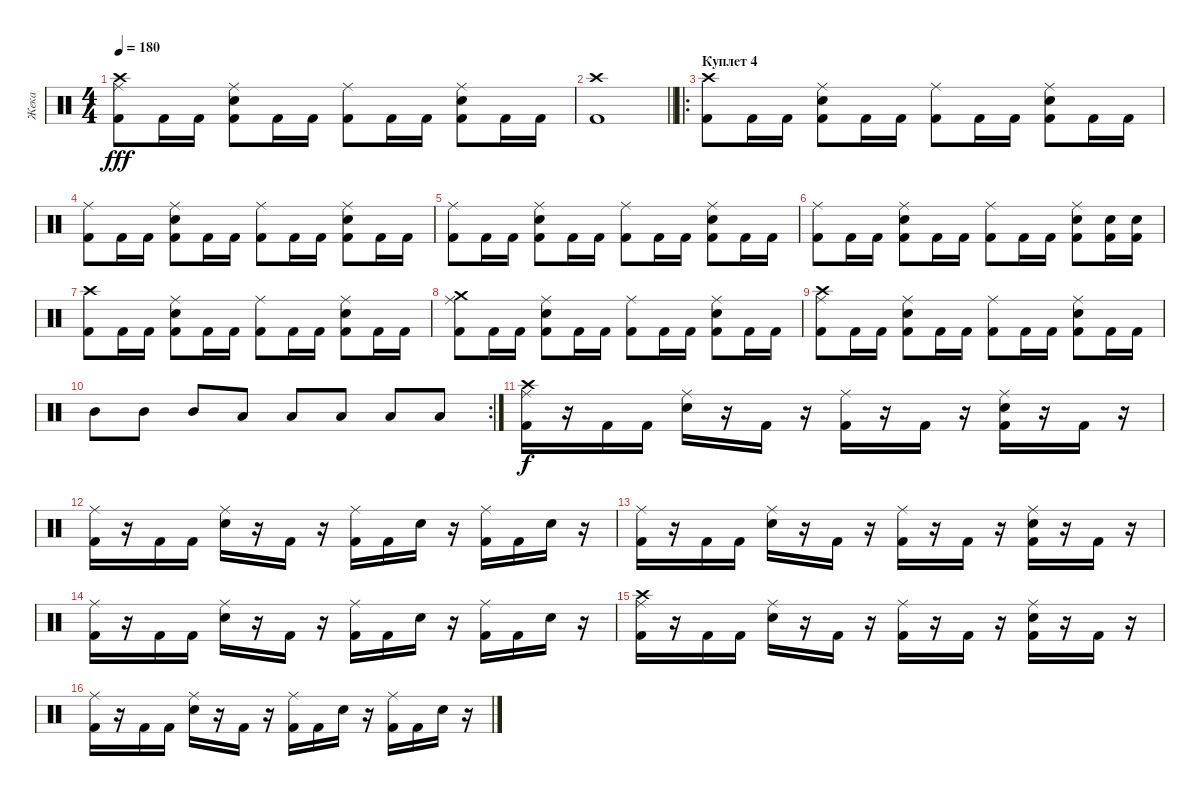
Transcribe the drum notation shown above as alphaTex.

\track ("Жека" "Жека") {instrument percussion}
\staff {score}
\articulation defaults
\ts (4 4)
\tempo 180
\clef neutral
\ks c
("Ride (middle)" "Kick (hit) 2" "Crash high (hit)").8{dy fff} "Kick (hit) 2".16 "Kick (hit) 2".16 ("Ride (middle)" "Kick (hit) 2" "Snare (hit) 2").8 "Kick (hit) 2".16 "Kick (hit) 2".16 ("Ride (middle)" "Kick (hit) 2").8 "Kick (hit) 2".16 "Kick (hit) 2".16 ("Ride (middle)" "Kick (hit) 2" "Snare (hit) 2").8 "Kick (hit) 2".16 "Kick (hit) 2".16 |
\barLineRight lightlight
("Kick (hit) 2" "Crash high (hit)").1 |
\ro
\section ("" "Куплет 4")
("Kick (hit) 2" "Crash high (hit)").8 "Kick (hit) 2".16 "Kick (hit) 2".16 ("Ride (middle)" "Kick (hit) 2" "Snare (hit) 2").8 "Kick (hit) 2".16 "Kick (hit) 2".16 ("Ride (middle)" "Kick (hit) 2").8 "Kick (hit) 2".16 "Kick (hit) 2".16 ("Ride (middle)" "Kick (hit) 2" "Snare (hit) 2").8 "Kick (hit) 2".16 "Kick (hit) 2".16 |
("Ride (middle)" "Kick (hit) 2").8 "Kick (hit) 2".16 "Kick (hit) 2".16 ("Ride (middle)" "Kick (hit) 2" "Snare (hit) 2").8 "Kick (hit) 2".16 "Kick (hit) 2".16 ("Ride (middle)" "Kick (hit) 2").8 "Kick (hit) 2".16 "Kick (hit) 2".16 ("Ride (middle)" "Kick (hit) 2" "Snare (hit) 2").8 "Kick (hit) 2".16 "Kick (hit) 2".16 |
("Ride (middle)" "Kick (hit) 2").8 "Kick (hit) 2".16 "Kick (hit) 2".16 ("Ride (middle)" "Kick (hit) 2" "Snare (hit) 2").8 "Kick (hit) 2".16 "Kick (hit) 2".16 ("Ride (middle)" "Kick (hit) 2").8 "Kick (hit) 2".16 "Kick (hit) 2".16 ("Ride (middle)" "Kick (hit) 2" "Snare (hit) 2").8 "Kick (hit) 2".16 "Kick (hit) 2".16 |
("Ride (middle)" "Kick (hit) 2").8 "Kick (hit) 2".16 "Kick (hit) 2".16 ("Ride (middle)" "Kick (hit) 2" "Snare (hit) 2").8 "Kick (hit) 2".16 "Kick (hit) 2".16 ("Ride (middle)" "Kick (hit) 2").8 "Kick (hit) 2".16 "Kick (hit) 2".16 ("Ride (middle)" "Kick (hit) 2" "Snare (hit) 2").8 ("Kick (hit) 2" "Snare (hit) 2").16 ("Kick (hit) 2" "Snare (hit) 2").16 |
("Kick (hit) 2" "Crash high (hit)").8 "Kick (hit) 2".16 "Kick (hit) 2".16 ("Ride (middle)" "Kick (hit) 2" "Snare (hit) 2").8 "Kick (hit) 2".16 "Kick (hit) 2".16 ("Ride (middle)" "Kick (hit) 2").8 "Kick (hit) 2".16 "Kick (hit) 2".16 ("Ride (middle)" "Kick (hit) 2" "Snare (hit) 2").8 "Kick (hit) 2".16 "Kick (hit) 2".16 |
("Ride (middle)" "Kick (hit) 2" "Crash medium (hit)").8 "Kick (hit) 2".16 "Kick (hit) 2".16 ("Ride (middle)" "Kick (hit) 2" "Snare (hit) 2").8 "Kick (hit) 2".16 "Kick (hit) 2".16 ("Ride (middle)" "Kick (hit) 2").8 "Kick (hit) 2".16 "Kick (hit) 2".16 ("Ride (middle)" "Kick (hit) 2" "Snare (hit) 2").8 "Kick (hit) 2".16 "Kick (hit) 2".16 |
("Ride (middle)" "Kick (hit) 2" "Crash high (hit)").8 "Kick (hit) 2".16 "Kick (hit) 2".16 ("Ride (middle)" "Kick (hit) 2" "Snare (hit) 2").8 "Kick (hit) 2".16 "Kick (hit) 2".16 ("Ride (middle)" "Kick (hit) 2").8 "Kick (hit) 2".16 "Kick (hit) 2".16 ("Ride (middle)" "Kick (hit) 2" "Snare (hit) 2").8 "Kick (hit) 2".16 "Kick (hit) 2".16 |
\rc 2 "Mid Tom (hit)".8 "Mid Tom (hit)".8 "Mid Tom (hit)".8 "Low Tom (hit)".8 "Low Tom (hit)".8 "Low Floor Tom (hit)".8 "Low Floor Tom (hit)".8 "Low Floor Tom (hit)".8
|
("Kick (hit) 2" "Ride (middle)" "Crash high (hit)").16{dy f} r.16 "Kick (hit) 2".16 "Kick (hit) 2".16 ("Ride (middle)" "Snare (hit) 2").16 r.16 "Kick (hit) 2".16 r.16 ("Kick (hit) 2" "Ride (middle)").16 r.16 "Kick (hit) 2".16 r.16 ("Kick (hit) 2" "Ride (middle)" "Snare (hit) 2").16 r.16 "Kick (hit) 2".16 r.16 |
("Kick (hit) 2" "Ride (middle)").16 r.16 "Kick (hit) 2".16 "Kick (hit) 2".16 ("Ride (middle)" "Snare (hit) 2").16 r.16 "Kick (hit) 2".16 r.16 ("Kick (hit) 2" "Ride (middle)").16 "Kick (hit) 2".16 "Snare (hit) 2".16 r.16 ("Kick (hit) 2" "Ride (middle)").16 "Kick (hit) 2".16 "Snare (hit) 2".16 r.16 |
("Kick (hit) 2" "Ride (middle)").16 r.16 "Kick (hit) 2".16 "Kick (hit) 2".16 ("Ride (middle)" "Snare (hit) 2").16 r.16 "Kick (hit) 2".16 r.16 ("Kick (hit) 2" "Ride (middle)").16 r.16 "Kick (hit) 2".16 r.16 ("Kick (hit) 2" "Ride (middle)" "Snare (hit) 2").16 r.16 "Kick (hit) 2".16 r.16 |
("Kick (hit) 2" "Ride (middle)").16 r.16 "Kick (hit) 2".16 "Kick (hit) 2".16 ("Ride (middle)" "Snare (hit) 2").16 r.16 "Kick (hit) 2".16 r.16 ("Kick (hit) 2" "Ride (middle)").16 "Kick (hit) 2".16 "Snare (hit) 2".16 r.16 ("Kick (hit) 2" "Ride (middle)").16 "Kick (hit) 2".16 "Snare (hit) 2".16 r.16 |
("Kick (hit) 2" "Ride (middle)" "Crash high (hit)").16 r.16 "Kick (hit) 2".16 "Kick (hit) 2".16 ("Ride (middle)" "Snare (hit) 2").16 r.16 "Kick (hit) 2".16 r.16 ("Kick (hit) 2" "Ride (middle)").16 r.16 "Kick (hit) 2".16 r.16 ("Kick (hit) 2" "Ride (middle)" "Snare (hit) 2").16 r.16 "Kick (hit) 2".16 r.16 |
("Kick (hit) 2" "Ride (middle)").16 r.16 "Kick (hit) 2".16 "Kick (hit) 2".16 ("Ride (middle)" "Snare (hit) 2").16 r.16 "Kick (hit) 2".16 r.16 ("Kick (hit) 2" "Ride (middle)").16 "Kick (hit) 2".16 "Snare (hit) 2".16 r.16 ("Kick (hit) 2" "Ride (middle)").16 "Kick (hit) 2".16 "Snare (hit) 2".16 r.16
